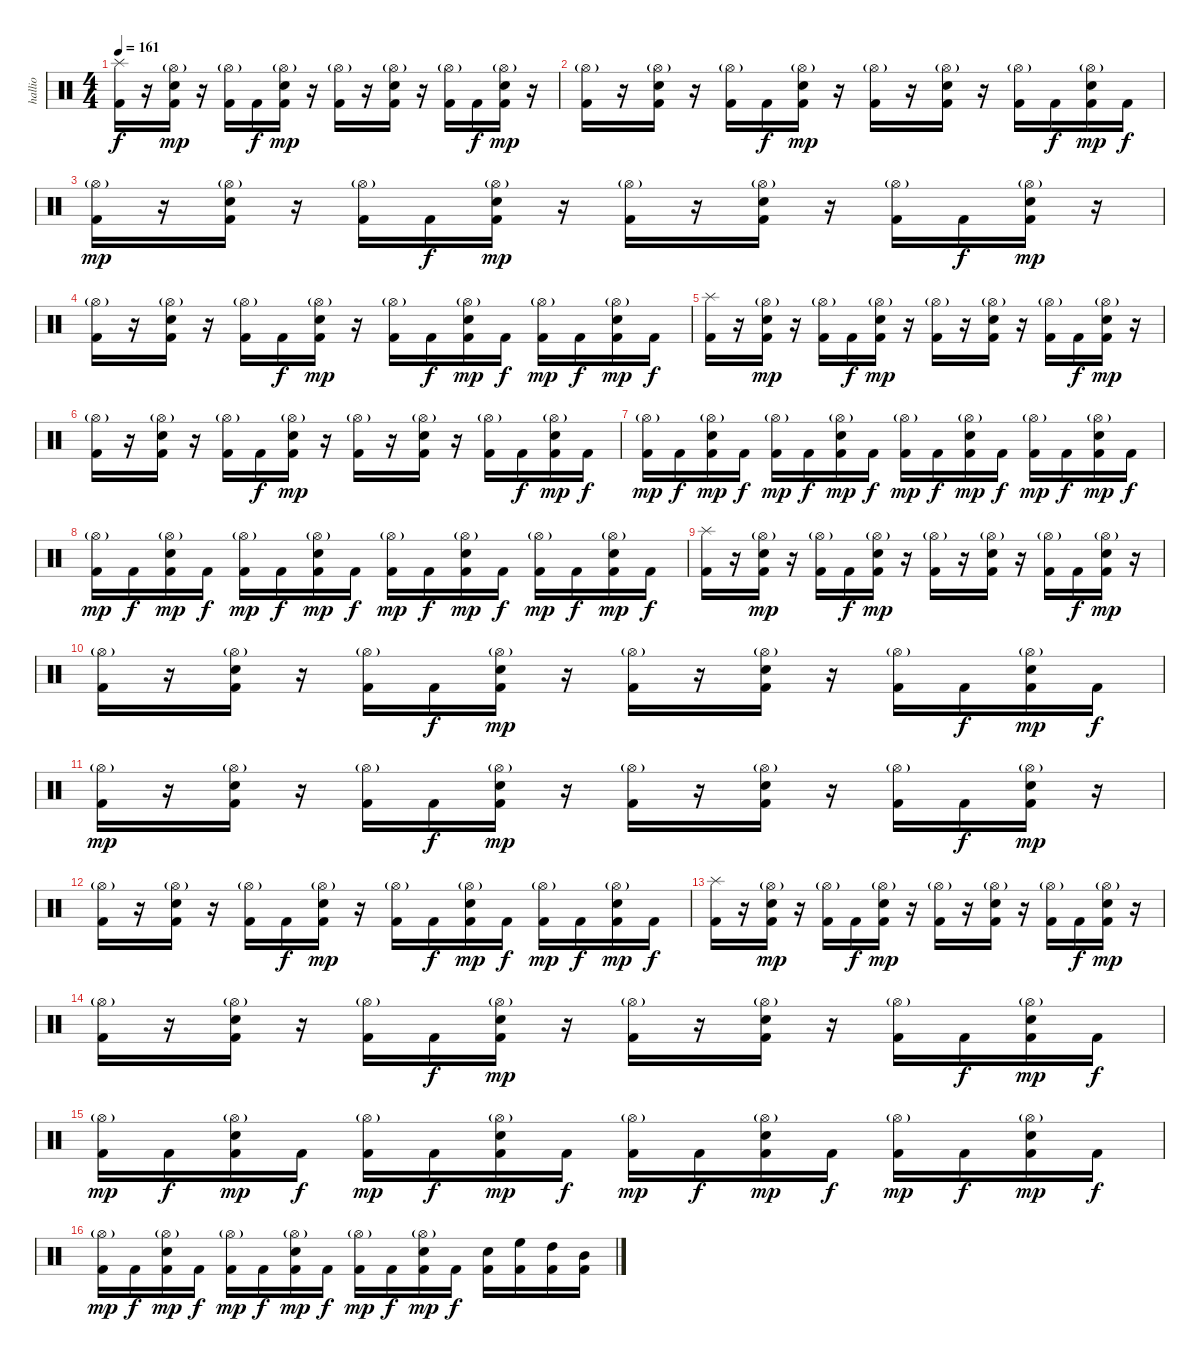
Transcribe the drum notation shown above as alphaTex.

\track ("hallio" "hallio") {instrument percussion}
\staff {score}
\articulation defaults
\ts (4 4)
\tempo 161
\clef neutral
\ks c
("Kick (hit) 2" "Splash (hit)").16{dy f} r.16 ("Kick (hit) 2" "Snare (hit) 2" "Hi-Hat (open)"{g}).16{dy mp} r.16 ("Kick (hit) 2" "Hi-Hat (open)"{g}).16 "Kick (hit) 2".16{dy f} ("Kick (hit) 2" "Snare (hit) 2" "Hi-Hat (open)"{g}).16{dy mp} r.16 ("Kick (hit) 2" "Hi-Hat (open)"{g}).16 r.16 ("Kick (hit) 2" "Snare (hit) 2" "Hi-Hat (open)"{g}).16 r.16 ("Kick (hit) 2" "Hi-Hat (open)"{g}).16 "Kick (hit) 2".16{dy f} ("Kick (hit) 2" "Snare (hit) 2" "Hi-Hat (open)"{g}).16{dy mp} r.16 |
("Kick (hit) 2" "Hi-Hat (open)"{g}).16 r.16 ("Kick (hit) 2" "Snare (hit) 2" "Hi-Hat (open)"{g}).16 r.16 ("Kick (hit) 2" "Hi-Hat (open)"{g}).16 "Kick (hit) 2".16{dy f} ("Kick (hit) 2" "Snare (hit) 2" "Hi-Hat (open)"{g}).16{dy mp} r.16 ("Kick (hit) 2" "Hi-Hat (open)"{g}).16 r.16 ("Kick (hit) 2" "Snare (hit) 2" "Hi-Hat (open)"{g}).16 r.16 ("Kick (hit) 2" "Hi-Hat (open)"{g}).16 "Kick (hit) 2".16{dy f} ("Kick (hit) 2" "Snare (hit) 2" "Hi-Hat (open)"{g}).16{dy mp} "Kick (hit) 2".16{dy f} |
("Kick (hit) 2" "Hi-Hat (open)"{g}).16{dy mp} r.16 ("Kick (hit) 2" "Snare (hit) 2" "Hi-Hat (open)"{g}).16 r.16 ("Kick (hit) 2" "Hi-Hat (open)"{g}).16 "Kick (hit) 2".16{dy f} ("Kick (hit) 2" "Snare (hit) 2" "Hi-Hat (open)"{g}).16{dy mp} r.16 ("Kick (hit) 2" "Hi-Hat (open)"{g}).16 r.16 ("Kick (hit) 2" "Snare (hit) 2" "Hi-Hat (open)"{g}).16 r.16 ("Kick (hit) 2" "Hi-Hat (open)"{g}).16 "Kick (hit) 2".16{dy f} ("Kick (hit) 2" "Snare (hit) 2" "Hi-Hat (open)"{g}).16{dy mp} r.16 |
("Kick (hit) 2" "Hi-Hat (open)"{g}).16 r.16 ("Kick (hit) 2" "Snare (hit) 2" "Hi-Hat (open)"{g}).16 r.16 ("Kick (hit) 2" "Hi-Hat (open)"{g}).16 "Kick (hit) 2".16{dy f} ("Kick (hit) 2" "Snare (hit) 2" "Hi-Hat (open)"{g}).16{dy mp} r.16 ("Kick (hit) 2" "Hi-Hat (open)"{g}).16 "Kick (hit) 2".16{dy f} ("Kick (hit) 2" "Snare (hit) 2" "Hi-Hat (open)"{g}).16{dy mp} "Kick (hit) 2".16{dy f} ("Kick (hit) 2" "Hi-Hat (open)"{g}).16{dy mp} "Kick (hit) 2".16{dy f} ("Kick (hit) 2" "Snare (hit) 2" "Hi-Hat (open)"{g}).16{dy mp} "Kick (hit) 2".16{dy f} |
("Kick (hit) 2" "Splash (hit)").16 r.16 ("Kick (hit) 2" "Snare (hit) 2" "Hi-Hat (open)"{g}).16{dy mp} r.16 ("Kick (hit) 2" "Hi-Hat (open)"{g}).16 "Kick (hit) 2".16{dy f} ("Kick (hit) 2" "Snare (hit) 2" "Hi-Hat (open)"{g}).16{dy mp} r.16 ("Kick (hit) 2" "Hi-Hat (open)"{g}).16 r.16 ("Kick (hit) 2" "Snare (hit) 2" "Hi-Hat (open)"{g}).16 r.16 ("Kick (hit) 2" "Hi-Hat (open)"{g}).16 "Kick (hit) 2".16{dy f} ("Kick (hit) 2" "Snare (hit) 2" "Hi-Hat (open)"{g}).16{dy mp} r.16 |
("Kick (hit) 2" "Hi-Hat (open)"{g}).16 r.16 ("Kick (hit) 2" "Snare (hit) 2" "Hi-Hat (open)"{g}).16 r.16 ("Kick (hit) 2" "Hi-Hat (open)"{g}).16 "Kick (hit) 2".16{dy f} ("Kick (hit) 2" "Snare (hit) 2" "Hi-Hat (open)"{g}).16{dy mp} r.16 ("Kick (hit) 2" "Hi-Hat (open)"{g}).16 r.16 ("Kick (hit) 2" "Snare (hit) 2" "Hi-Hat (open)"{g}).16 r.16 ("Kick (hit) 2" "Hi-Hat (open)"{g}).16 "Kick (hit) 2".16{dy f} ("Kick (hit) 2" "Snare (hit) 2" "Hi-Hat (open)"{g}).16{dy mp} "Kick (hit) 2".16{dy f} |
("Kick (hit) 2" "Hi-Hat (open)"{g}).16{dy mp} "Kick (hit) 2".16{dy f} ("Kick (hit) 2" "Snare (hit) 2" "Hi-Hat (open)"{g}).16{dy mp} "Kick (hit) 2".16{dy f} ("Kick (hit) 2" "Hi-Hat (open)"{g}).16{dy mp} "Kick (hit) 2".16{dy f} ("Kick (hit) 2" "Snare (hit) 2" "Hi-Hat (open)"{g}).16{dy mp} "Kick (hit) 2".16{dy f} ("Kick (hit) 2" "Hi-Hat (open)"{g}).16{dy mp} "Kick (hit) 2".16{dy f} ("Kick (hit) 2" "Snare (hit) 2" "Hi-Hat (open)"{g}).16{dy mp} "Kick (hit) 2".16{dy f} ("Kick (hit) 2" "Hi-Hat (open)"{g}).16{dy mp} "Kick (hit) 2".16{dy f} ("Kick (hit) 2" "Snare (hit) 2" "Hi-Hat (open)"{g}).16{dy mp} "Kick (hit) 2".16{dy f} |
("Kick (hit) 2" "Hi-Hat (open)"{g}).16{dy mp} "Kick (hit) 2".16{dy f} ("Kick (hit) 2" "Snare (hit) 2" "Hi-Hat (open)"{g}).16{dy mp} "Kick (hit) 2".16{dy f} ("Kick (hit) 2" "Hi-Hat (open)"{g}).16{dy mp} "Kick (hit) 2".16{dy f} ("Kick (hit) 2" "Snare (hit) 2" "Hi-Hat (open)"{g}).16{dy mp} "Kick (hit) 2".16{dy f} ("Kick (hit) 2" "Hi-Hat (open)"{g}).16{dy mp} "Kick (hit) 2".16{dy f} ("Kick (hit) 2" "Snare (hit) 2" "Hi-Hat (open)"{g}).16{dy mp} "Kick (hit) 2".16{dy f} ("Kick (hit) 2" "Hi-Hat (open)"{g}).16{dy mp} "Kick (hit) 2".16{dy f} ("Kick (hit) 2" "Snare (hit) 2" "Hi-Hat (open)"{g}).16{dy mp} "Kick (hit) 2".16{dy f} |
("Kick (hit) 2" "Splash (hit)").16 r.16 ("Kick (hit) 2" "Snare (hit) 2" "Hi-Hat (open)"{g}).16{dy mp} r.16 ("Kick (hit) 2" "Hi-Hat (open)"{g}).16 "Kick (hit) 2".16{dy f} ("Kick (hit) 2" "Snare (hit) 2" "Hi-Hat (open)"{g}).16{dy mp} r.16 ("Kick (hit) 2" "Hi-Hat (open)"{g}).16 r.16 ("Kick (hit) 2" "Snare (hit) 2" "Hi-Hat (open)"{g}).16 r.16 ("Kick (hit) 2" "Hi-Hat (open)"{g}).16 "Kick (hit) 2".16{dy f} ("Kick (hit) 2" "Snare (hit) 2" "Hi-Hat (open)"{g}).16{dy mp} r.16 |
("Kick (hit) 2" "Hi-Hat (open)"{g}).16 r.16 ("Kick (hit) 2" "Snare (hit) 2" "Hi-Hat (open)"{g}).16 r.16 ("Kick (hit) 2" "Hi-Hat (open)"{g}).16 "Kick (hit) 2".16{dy f} ("Kick (hit) 2" "Snare (hit) 2" "Hi-Hat (open)"{g}).16{dy mp} r.16 ("Kick (hit) 2" "Hi-Hat (open)"{g}).16 r.16 ("Kick (hit) 2" "Snare (hit) 2" "Hi-Hat (open)"{g}).16 r.16 ("Kick (hit) 2" "Hi-Hat (open)"{g}).16 "Kick (hit) 2".16{dy f} ("Kick (hit) 2" "Snare (hit) 2" "Hi-Hat (open)"{g}).16{dy mp} "Kick (hit) 2".16{dy f} |
("Kick (hit) 2" "Hi-Hat (open)"{g}).16{dy mp} r.16 ("Kick (hit) 2" "Snare (hit) 2" "Hi-Hat (open)"{g}).16 r.16 ("Kick (hit) 2" "Hi-Hat (open)"{g}).16 "Kick (hit) 2".16{dy f} ("Kick (hit) 2" "Snare (hit) 2" "Hi-Hat (open)"{g}).16{dy mp} r.16 ("Kick (hit) 2" "Hi-Hat (open)"{g}).16 r.16 ("Kick (hit) 2" "Snare (hit) 2" "Hi-Hat (open)"{g}).16 r.16 ("Kick (hit) 2" "Hi-Hat (open)"{g}).16 "Kick (hit) 2".16{dy f} ("Kick (hit) 2" "Snare (hit) 2" "Hi-Hat (open)"{g}).16{dy mp} r.16 |
("Kick (hit) 2" "Hi-Hat (open)"{g}).16 r.16 ("Kick (hit) 2" "Snare (hit) 2" "Hi-Hat (open)"{g}).16 r.16 ("Kick (hit) 2" "Hi-Hat (open)"{g}).16 "Kick (hit) 2".16{dy f} ("Kick (hit) 2" "Snare (hit) 2" "Hi-Hat (open)"{g}).16{dy mp} r.16 ("Kick (hit) 2" "Hi-Hat (open)"{g}).16 "Kick (hit) 2".16{dy f} ("Kick (hit) 2" "Snare (hit) 2" "Hi-Hat (open)"{g}).16{dy mp} "Kick (hit) 2".16{dy f} ("Kick (hit) 2" "Hi-Hat (open)"{g}).16{dy mp} "Kick (hit) 2".16{dy f} ("Kick (hit) 2" "Snare (hit) 2" "Hi-Hat (open)"{g}).16{dy mp} "Kick (hit) 2".16{dy f} |
("Kick (hit) 2" "Splash (hit)").16 r.16 ("Kick (hit) 2" "Snare (hit) 2" "Hi-Hat (open)"{g}).16{dy mp} r.16 ("Kick (hit) 2" "Hi-Hat (open)"{g}).16 "Kick (hit) 2".16{dy f} ("Kick (hit) 2" "Snare (hit) 2" "Hi-Hat (open)"{g}).16{dy mp} r.16 ("Kick (hit) 2" "Hi-Hat (open)"{g}).16 r.16 ("Kick (hit) 2" "Snare (hit) 2" "Hi-Hat (open)"{g}).16 r.16 ("Kick (hit) 2" "Hi-Hat (open)"{g}).16 "Kick (hit) 2".16{dy f} ("Kick (hit) 2" "Snare (hit) 2" "Hi-Hat (open)"{g}).16{dy mp} r.16 |
("Kick (hit) 2" "Hi-Hat (open)"{g}).16 r.16 ("Kick (hit) 2" "Snare (hit) 2" "Hi-Hat (open)"{g}).16 r.16 ("Kick (hit) 2" "Hi-Hat (open)"{g}).16 "Kick (hit) 2".16{dy f} ("Kick (hit) 2" "Snare (hit) 2" "Hi-Hat (open)"{g}).16{dy mp} r.16 ("Kick (hit) 2" "Hi-Hat (open)"{g}).16 r.16 ("Kick (hit) 2" "Snare (hit) 2" "Hi-Hat (open)"{g}).16 r.16 ("Kick (hit) 2" "Hi-Hat (open)"{g}).16 "Kick (hit) 2".16{dy f} ("Kick (hit) 2" "Snare (hit) 2" "Hi-Hat (open)"{g}).16{dy mp} "Kick (hit) 2".16{dy f} |
("Kick (hit) 2" "Hi-Hat (open)"{g}).16{dy mp} "Kick (hit) 2".16{dy f} ("Kick (hit) 2" "Snare (hit) 2" "Hi-Hat (open)"{g}).16{dy mp} "Kick (hit) 2".16{dy f} ("Kick (hit) 2" "Hi-Hat (open)"{g}).16{dy mp} "Kick (hit) 2".16{dy f} ("Kick (hit) 2" "Snare (hit) 2" "Hi-Hat (open)"{g}).16{dy mp} "Kick (hit) 2".16{dy f} ("Kick (hit) 2" "Hi-Hat (open)"{g}).16{dy mp} "Kick (hit) 2".16{dy f} ("Kick (hit) 2" "Snare (hit) 2" "Hi-Hat (open)"{g}).16{dy mp} "Kick (hit) 2".16{dy f} ("Kick (hit) 2" "Hi-Hat (open)"{g}).16{dy mp} "Kick (hit) 2".16{dy f} ("Kick (hit) 2" "Snare (hit) 2" "Hi-Hat (open)"{g}).16{dy mp} "Kick (hit) 2".16{dy f} |
("Kick (hit) 2" "Hi-Hat (open)"{g}).16{dy mp} "Kick (hit) 2".16{dy f} ("Kick (hit) 2" "Snare (hit) 2" "Hi-Hat (open)"{g}).16{dy mp} "Kick (hit) 2".16{dy f} ("Kick (hit) 2" "Hi-Hat (open)"{g}).16{dy mp} "Kick (hit) 2".16{dy f} ("Kick (hit) 2" "Snare (hit) 2" "Hi-Hat (open)"{g}).16{dy mp} "Kick (hit) 2".16{dy f} ("Kick (hit) 2" "Hi-Hat (open)"{g}).16{dy mp} "Kick (hit) 2".16{dy f} ("Kick (hit) 2" "Snare (hit) 2" "Hi-Hat (open)"{g}).16{dy mp} "Kick (hit) 2".16{dy f} ("Kick (hit) 2" "Snare (hit) 2").16 ("Kick (hit) 2" "High Floor Tom (hit)").16 ("Kick (hit) 2" "High Tom (hit)").16 ("Kick (hit) 2" "Mid Tom (hit)").16
